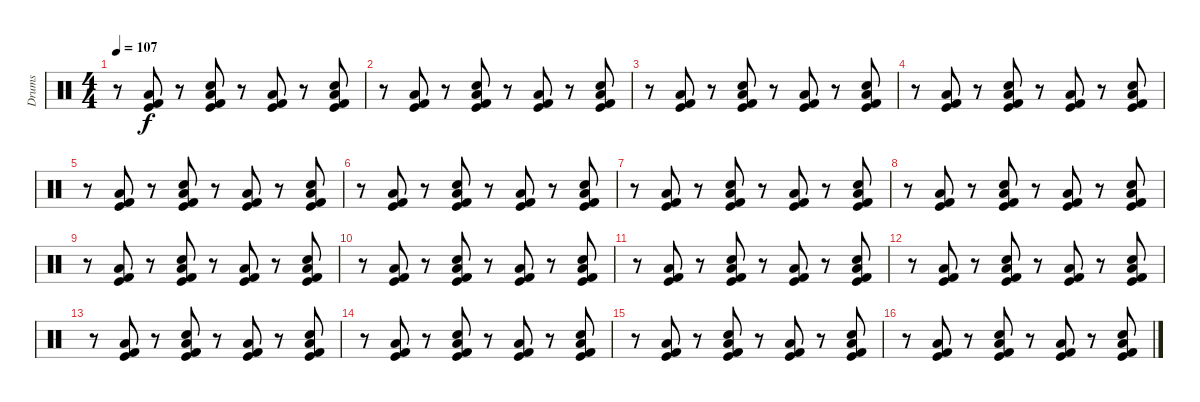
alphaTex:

\track ("Drums" "Drums") {instrument percussion}
\staff {score}
\articulation defaults
\ts (4 4)
\tempo 107
\clef neutral
\ks c
r.8{dy f} ("Kick (hit)" "Low Floor Tom (hit)" "Kick (hit) 2").8 r.8 ("Electric Snare (hit)" "Kick (hit)" "Low Floor Tom (hit)" "Kick (hit) 2").8 r.8 ("Kick (hit)" "Low Floor Tom (hit)" "Kick (hit) 2").8 r.8 ("Electric Snare (hit)" "Kick (hit)" "Low Floor Tom (hit)" "Kick (hit) 2").8 |
r.8 ("Kick (hit)" "Low Floor Tom (hit)" "Kick (hit) 2").8 r.8 ("Electric Snare (hit)" "Kick (hit)" "Low Floor Tom (hit)" "Kick (hit) 2").8 r.8 ("Kick (hit)" "Low Floor Tom (hit)" "Kick (hit) 2").8 r.8 ("Electric Snare (hit)" "Kick (hit)" "Low Floor Tom (hit)" "Kick (hit) 2").8 |
r.8 ("Kick (hit)" "Low Floor Tom (hit)" "Kick (hit) 2").8 r.8 ("Electric Snare (hit)" "Kick (hit)" "Low Floor Tom (hit)" "Kick (hit) 2").8 r.8 ("Kick (hit)" "Low Floor Tom (hit)" "Kick (hit) 2").8 r.8 ("Electric Snare (hit)" "Kick (hit)" "Low Floor Tom (hit)" "Kick (hit) 2").8 |
r.8 ("Kick (hit)" "Low Floor Tom (hit)" "Kick (hit) 2").8 r.8 ("Electric Snare (hit)" "Kick (hit)" "Low Floor Tom (hit)" "Kick (hit) 2").8 r.8 ("Kick (hit)" "Low Floor Tom (hit)" "Kick (hit) 2").8 r.8 ("Electric Snare (hit)" "Kick (hit)" "Low Floor Tom (hit)" "Kick (hit) 2").8 |
r.8 ("Kick (hit)" "Low Floor Tom (hit)" "Kick (hit) 2").8 r.8 ("Electric Snare (hit)" "Kick (hit)" "Low Floor Tom (hit)" "Kick (hit) 2").8 r.8 ("Kick (hit)" "Low Floor Tom (hit)" "Kick (hit) 2").8 r.8 ("Electric Snare (hit)" "Kick (hit)" "Low Floor Tom (hit)" "Kick (hit) 2").8 |
r.8 ("Kick (hit)" "Low Floor Tom (hit)" "Kick (hit) 2").8 r.8 ("Electric Snare (hit)" "Kick (hit)" "Low Floor Tom (hit)" "Kick (hit) 2").8 r.8 ("Kick (hit)" "Low Floor Tom (hit)" "Kick (hit) 2").8 r.8 ("Electric Snare (hit)" "Kick (hit)" "Low Floor Tom (hit)" "Kick (hit) 2").8 |
r.8 ("Kick (hit)" "Low Floor Tom (hit)" "Kick (hit) 2").8 r.8 ("Electric Snare (hit)" "Kick (hit)" "Low Floor Tom (hit)" "Kick (hit) 2").8 r.8 ("Kick (hit)" "Low Floor Tom (hit)" "Kick (hit) 2").8 r.8 ("Electric Snare (hit)" "Kick (hit)" "Low Floor Tom (hit)" "Kick (hit) 2").8 |
r.8 ("Kick (hit)" "Low Floor Tom (hit)" "Kick (hit) 2").8 r.8 ("Electric Snare (hit)" "Kick (hit)" "Low Floor Tom (hit)" "Kick (hit) 2").8 r.8 ("Kick (hit)" "Low Floor Tom (hit)" "Kick (hit) 2").8 r.8 ("Electric Snare (hit)" "Kick (hit)" "Low Floor Tom (hit)" "Kick (hit) 2").8 |
r.8 ("Kick (hit)" "Low Floor Tom (hit)" "Kick (hit) 2").8 r.8 ("Electric Snare (hit)" "Kick (hit)" "Low Floor Tom (hit)" "Kick (hit) 2").8 r.8 ("Kick (hit)" "Low Floor Tom (hit)" "Kick (hit) 2").8 r.8 ("Electric Snare (hit)" "Kick (hit)" "Low Floor Tom (hit)" "Kick (hit) 2").8 |
r.8 ("Kick (hit)" "Low Floor Tom (hit)" "Kick (hit) 2").8 r.8 ("Electric Snare (hit)" "Kick (hit)" "Low Floor Tom (hit)" "Kick (hit) 2").8 r.8 ("Kick (hit)" "Low Floor Tom (hit)" "Kick (hit) 2").8 r.8 ("Electric Snare (hit)" "Kick (hit)" "Low Floor Tom (hit)" "Kick (hit) 2").8 |
r.8 ("Kick (hit)" "Low Floor Tom (hit)" "Kick (hit) 2").8 r.8 ("Electric Snare (hit)" "Kick (hit)" "Low Floor Tom (hit)" "Kick (hit) 2").8 r.8 ("Kick (hit)" "Low Floor Tom (hit)" "Kick (hit) 2").8 r.8 ("Electric Snare (hit)" "Kick (hit)" "Low Floor Tom (hit)" "Kick (hit) 2").8 |
r.8 ("Kick (hit)" "Low Floor Tom (hit)" "Kick (hit) 2").8 r.8 ("Electric Snare (hit)" "Kick (hit)" "Low Floor Tom (hit)" "Kick (hit) 2").8 r.8 ("Kick (hit)" "Low Floor Tom (hit)" "Kick (hit) 2").8 r.8 ("Electric Snare (hit)" "Kick (hit)" "Low Floor Tom (hit)" "Kick (hit) 2").8 |
r.8{volume 8} ("Kick (hit)" "Low Floor Tom (hit)" "Kick (hit) 2").8 r.8 ("Electric Snare (hit)" "Kick (hit)" "Low Floor Tom (hit)" "Kick (hit) 2").8 r.8 ("Kick (hit)" "Low Floor Tom (hit)" "Kick (hit) 2").8 r.8 ("Electric Snare (hit)" "Kick (hit)" "Low Floor Tom (hit)" "Kick (hit) 2").8 |
r.8 ("Kick (hit)" "Low Floor Tom (hit)" "Kick (hit) 2").8 r.8 ("Electric Snare (hit)" "Kick (hit)" "Low Floor Tom (hit)" "Kick (hit) 2").8 r.8 ("Kick (hit)" "Low Floor Tom (hit)" "Kick (hit) 2").8 r.8 ("Electric Snare (hit)" "Kick (hit)" "Low Floor Tom (hit)" "Kick (hit) 2").8 |
r.8 ("Kick (hit)" "Low Floor Tom (hit)" "Kick (hit) 2").8 r.8 ("Electric Snare (hit)" "Kick (hit)" "Low Floor Tom (hit)" "Kick (hit) 2").8 r.8 ("Kick (hit)" "Low Floor Tom (hit)" "Kick (hit) 2").8 r.8 ("Electric Snare (hit)" "Kick (hit)" "Low Floor Tom (hit)" "Kick (hit) 2").8 |
r.8 ("Kick (hit)" "Low Floor Tom (hit)" "Kick (hit) 2").8 r.8 ("Electric Snare (hit)" "Kick (hit)" "Low Floor Tom (hit)" "Kick (hit) 2").8 r.8 ("Kick (hit)" "Low Floor Tom (hit)" "Kick (hit) 2").8 r.8 ("Electric Snare (hit)" "Kick (hit)" "Low Floor Tom (hit)" "Kick (hit) 2").8
